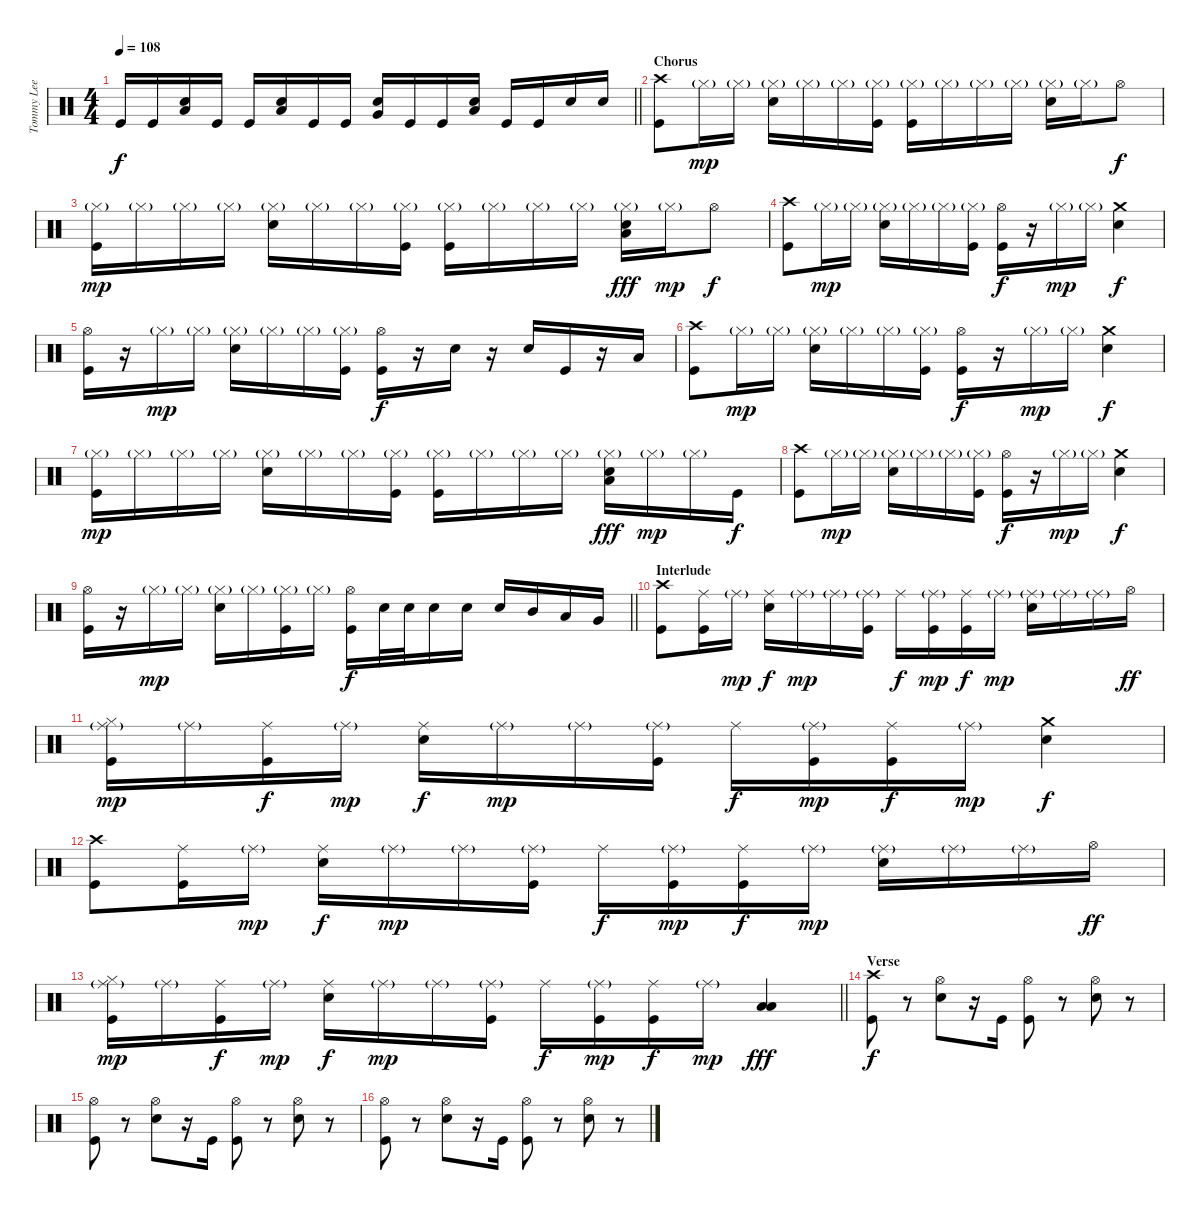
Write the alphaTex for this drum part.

\track ("Tommy Lee" "Tommy Lee") {instrument percussion}
\staff {score}
\articulation defaults
\ts (4 4)
\tempo 108
\clef neutral
\barLineRight lightlight
\ks c "Kick (hit)".16{dy f} "Kick (hit)".16
("Low Tom (hit)" "Snare (hit) 2").16 "Kick (hit)".16 "Kick (hit)".16 ("Low Tom (hit)" "Snare (hit) 2").16 "Kick (hit)".16 "Kick (hit)".16 ("Very Low Tom (hit)" "Snare (hit) 2").16 "Kick (hit)".16 "Kick (hit)".16 ("Low Floor Tom (hit)" "Snare (hit) 2").16 "Kick (hit)".16 "Kick (hit)".16 "Snare (hit) 2".16 "Snare (hit) 2".16 |
\section ("" "Chorus")
("Crash high (hit)" "Kick (hit)").8 "Hi-Hat (closed)"{g}.16{dy mp} "Hi-Hat (closed)"{g}.16 ("Hi-Hat (closed)"{g} "Snare (hit) 2").16 "Hi-Hat (closed)"{g}.16 "Hi-Hat (closed)"{g}.16 ("Hi-Hat (closed)"{g} "Kick (hit)").16 ("Hi-Hat (closed)"{g} "Kick (hit)").16 "Hi-Hat (closed)"{g}.16 "Hi-Hat (closed)"{g}.16 "Hi-Hat (closed)"{g}.16 ("Hi-Hat (closed)"{g} "Snare (hit) 2").16 "Hi-Hat (closed)"{g}.16 "Hi-Hat (open)".8{dy f} |
("Hi-Hat (closed)"{g} "Kick (hit)").16{dy mp} "Hi-Hat (closed)"{g}.16 "Hi-Hat (closed)"{g}.16 "Hi-Hat (closed)"{g}.16 ("Hi-Hat (closed)"{g} "Snare (hit) 2").16 "Hi-Hat (closed)"{g}.16 "Hi-Hat (closed)"{g}.16 ("Hi-Hat (closed)"{g} "Kick (hit)").16 ("Hi-Hat (closed)"{g} "Kick (hit)").16 "Hi-Hat (closed)"{g}.16 "Hi-Hat (closed)"{g}.16 "Hi-Hat (closed)"{g}.16 ("Hi-Hat (closed)"{g} "Low Tom (hit)" "Snare (hit) 2").16{dy fff} "Hi-Hat (closed)"{g}.16{dy mp} "Hi-Hat (open)".8{dy f} |
("Crash high (hit)" "Kick (hit)").8 "Hi-Hat (closed)"{g}.16{dy mp} "Hi-Hat (closed)"{g}.16 ("Hi-Hat (closed)"{g} "Snare (hit) 2").16 "Hi-Hat (closed)"{g}.16 "Hi-Hat (closed)"{g}.16 ("Hi-Hat (closed)"{g} "Kick (hit)").16 ("Hi-Hat (open)" "Kick (hit)").16{dy f} r.16 "Hi-Hat (closed)"{g}.16{dy mp} "Hi-Hat (closed)"{g}.16 ("Crash medium (hit)" "Snare (hit) 2").4{dy f} |
("Hi-Hat (open)" "Kick (hit)").16 r.16 "Hi-Hat (closed)"{g}.16{dy mp} "Hi-Hat (closed)"{g}.16 ("Hi-Hat (closed)"{g} "Snare (hit) 2").16 "Hi-Hat (closed)"{g}.16 "Hi-Hat (closed)"{g}.16 ("Hi-Hat (closed)"{g} "Kick (hit)").16 ("Hi-Hat (open)" "Kick (hit)").16{dy f} r.16 "Snare (hit) 2".16 r.16 "Snare (hit) 2".16 "Kick (hit)".16 r.16 "Low Tom (hit)".16 |
("Crash high (hit)" "Kick (hit)").8 "Hi-Hat (closed)"{g}.16{dy mp} "Hi-Hat (closed)"{g}.16 ("Hi-Hat (closed)"{g} "Snare (hit) 2").16 "Hi-Hat (closed)"{g}.16 "Hi-Hat (closed)"{g}.16 ("Hi-Hat (closed)"{g} "Kick (hit)").16 ("Hi-Hat (open)" "Kick (hit)").16{dy f} r.16 "Hi-Hat (closed)"{g}.16{dy mp} "Hi-Hat (closed)"{g}.16 ("Crash medium (hit)" "Snare (hit) 2").4{dy f} |
("Hi-Hat (closed)"{g} "Kick (hit)").16{dy mp} "Hi-Hat (closed)"{g}.16 "Hi-Hat (closed)"{g}.16 "Hi-Hat (closed)"{g}.16 ("Hi-Hat (closed)"{g} "Snare (hit) 2").16 "Hi-Hat (closed)"{g}.16 "Hi-Hat (closed)"{g}.16 ("Hi-Hat (closed)"{g} "Kick (hit)").16 ("Hi-Hat (closed)"{g} "Kick (hit)").16 "Hi-Hat (closed)"{g}.16 "Hi-Hat (closed)"{g}.16 "Hi-Hat (closed)"{g}.16 ("Hi-Hat (closed)"{g} "Low Tom (hit)" "Snare (hit) 2").16{dy fff} "Hi-Hat (closed)"{g}.16{dy mp} "Hi-Hat (closed)"{g}.16 "Kick (hit)".16{dy f} |
("Crash high (hit)" "Kick (hit)").8 "Hi-Hat (closed)"{g}.16{dy mp} "Hi-Hat (closed)"{g}.16 ("Hi-Hat (closed)"{g} "Snare (hit) 2").16 "Hi-Hat (closed)"{g}.16 "Hi-Hat (closed)"{g}.16 ("Hi-Hat (closed)"{g} "Kick (hit)").16 ("Hi-Hat (open)" "Kick (hit)").16{dy f} r.16 "Hi-Hat (closed)"{g}.16{dy mp} "Hi-Hat (closed)"{g}.16 ("Crash medium (hit)" "Snare (hit) 2").4{dy f} |
\barLineRight lightlight
("Hi-Hat (open)" "Kick (hit)").16 r.16 "Hi-Hat (closed)"{g}.16{dy mp} "Hi-Hat (closed)"{g}.16 ("Hi-Hat (closed)"{g} "Snare (hit) 2").16 "Hi-Hat (closed)"{g}.16 ("Hi-Hat (closed)"{g} "Kick (hit)").16 "Hi-Hat (closed)"{g}.16 ("Hi-Hat (open)" "Kick (hit)").16{dy f} "Snare (hit) 2".32 "Snare (hit) 2".32 "Snare (hit) 2".16 "Snare (hit) 2".16 "Snare (hit) 2".16 "Mid Tom (hit)".16 "Low Tom (hit)".16 "Very Low Tom (hit)".16 |
\section ("" "Interlude")
("Crash high (hit)" "Kick (hit)").8 ("Ride (middle)" "Kick (hit)").16 "Ride (middle)"{g}.16{dy mp} ("Ride (middle)" "Snare (hit) 2").16{dy f} "Ride (middle)"{g}.16{dy mp} "Ride (middle)"{g}.16 ("Ride (middle)"{g} "Kick (hit)").16 "Ride (middle)".16{dy f} ("Ride (middle)"{g} "Kick (hit)").16{dy mp} ("Ride (middle)" "Kick (hit)").16{dy f} "Ride (middle)"{g}.16{dy mp} ("Ride (middle)"{g} "Snare (hit) 2").16 "Ride (middle)"{g}.16 "Ride (middle)"{g}.16 "Hi-Hat (open)".16{dy ff} |
("Hi-Hat (closed)" "Ride (middle)"{g} "Kick (hit)").16{dy mp} "Ride (middle)"{g}.16 ("Ride (middle)" "Kick (hit)").16{dy f} "Ride (middle)"{g}.16{dy mp} ("Ride (middle)" "Snare (hit) 2").16{dy f} "Ride (middle)"{g}.16{dy mp} "Ride (middle)"{g}.16 ("Ride (middle)"{g} "Kick (hit)").16 "Ride (middle)".16{dy f} ("Ride (middle)"{g} "Kick (hit)").16{dy mp} ("Ride (middle)" "Kick (hit)").16{dy f} "Ride (middle)"{g}.16{dy mp} ("Crash medium (hit)" "Snare (hit) 2").4{dy f} |
("Crash high (hit)" "Kick (hit)").8 ("Ride (middle)" "Kick (hit)").16 "Ride (middle)"{g}.16{dy mp} ("Ride (middle)" "Snare (hit) 2").16{dy f} "Ride (middle)"{g}.16{dy mp} "Ride (middle)"{g}.16 ("Ride (middle)"{g} "Kick (hit)").16 "Ride (middle)".16{dy f} ("Ride (middle)"{g} "Kick (hit)").16{dy mp} ("Ride (middle)" "Kick (hit)").16{dy f} "Ride (middle)"{g}.16{dy mp} ("Ride (middle)"{g} "Snare (hit) 2").16 "Ride (middle)"{g}.16 "Ride (middle)"{g}.16 "Hi-Hat (open)".16{dy ff} |
\barLineRight lightlight
("Hi-Hat (closed)" "Ride (middle)"{g} "Kick (hit)").16{dy mp} "Ride (middle)"{g}.16 ("Ride (middle)" "Kick (hit)").16{dy f} "Ride (middle)"{g}.16{dy mp} ("Ride (middle)" "Snare (hit) 2").16{dy f} "Ride (middle)"{g}.16{dy mp} "Ride (middle)"{g}.16 ("Ride (middle)"{g} "Kick (hit)").16 "Ride (middle)".16{dy f} ("Ride (middle)"{g} "Kick (hit)").16{dy mp} ("Ride (middle)" "Kick (hit)").16{dy f} "Ride (middle)"{g}.16{dy mp} ("Low Tom (hit)" "Low Tom (hit)").4{dy fff} |
\section ("" "Verse")
("Crash high (hit)" "Kick (hit)").8{dy f} r.8 ("Hi-Hat (open)" "Snare (hit) 2").8 r.16 "Kick (hit)".16 ("Hi-Hat (open)" "Kick (hit)").8 r.8 ("Hi-Hat (open)" "Snare (hit) 2").8 r.8 |
("Hi-Hat (open)" "Kick (hit)").8 r.8 ("Hi-Hat (open)" "Snare (hit) 2").8 r.16 "Kick (hit)".16 ("Hi-Hat (open)" "Kick (hit)").8 r.8 ("Hi-Hat (open)" "Snare (hit) 2").8 r.8 |
("Hi-Hat (open)" "Kick (hit)").8 r.8 ("Hi-Hat (open)" "Snare (hit) 2").8 r.16 "Kick (hit)".16 ("Hi-Hat (open)" "Kick (hit)").8 r.8 ("Hi-Hat (open)" "Snare (hit) 2").8 r.8
